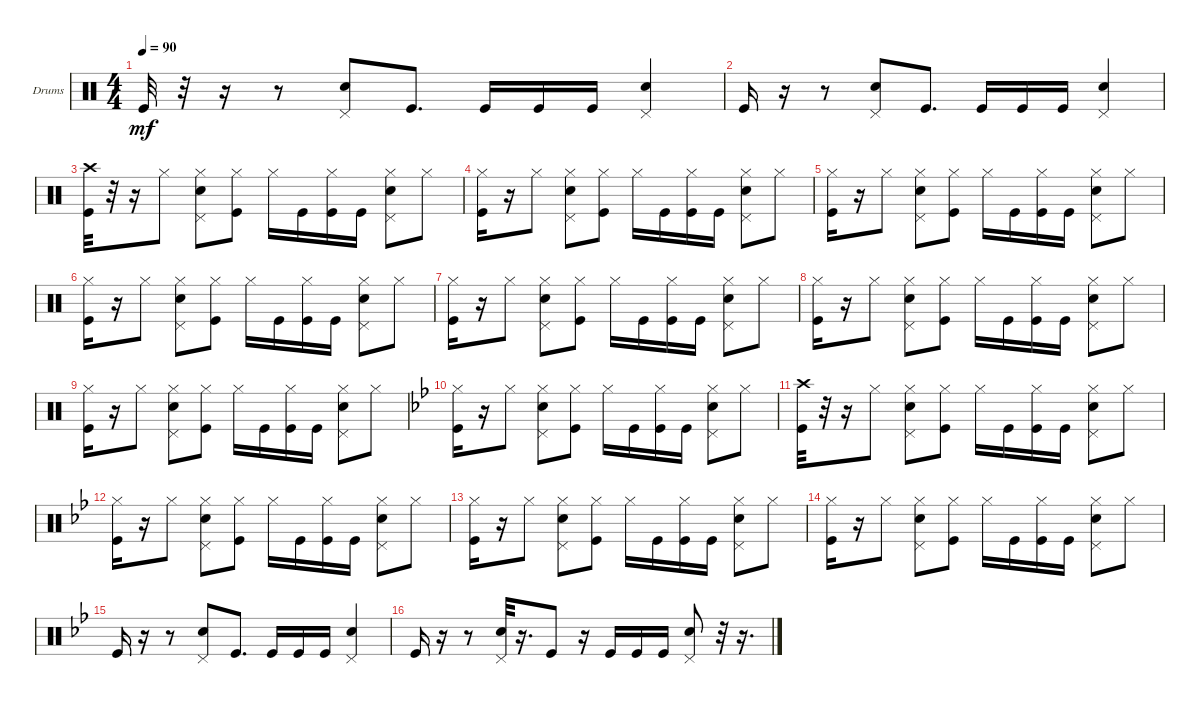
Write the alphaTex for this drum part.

\bracketExtendMode groupsimilarinstruments
\firstSystemTrackNameOrientation horizontal
\otherSystemsTrackNameOrientation horizontal
\track ("Drumkit" "Drums") {instrument percussion}
\staff {score}
\articulation defaults
\ts (4 4)
\tempo 90
\clef neutral
\ks c "Kick (hit)".32{dy mf}
r.32 r.16 r.8 ("Pedal Hi-Hat (hit)" "Snare (hit) 2").8 "Kick (hit)".8{d} "Kick (hit)".16 "Kick (hit)".16 "Kick (hit)".16 ("Pedal Hi-Hat (hit)" "Snare (hit) 2").4 |
"Kick (hit)".16 r.16 r.8 ("Pedal Hi-Hat (hit)" "Snare (hit) 2").8 "Kick (hit)".8{d} "Kick (hit)".16 "Kick (hit)".16 "Kick (hit)".16 ("Pedal Hi-Hat (hit)" "Snare (hit) 2").4 |
("Kick (hit)" "Crash high (hit)").32 r.32 r.16 "Hi-Hat (closed)".8 ("Hi-Hat (closed)" "Pedal Hi-Hat (hit)" "Snare (hit) 2").8 ("Hi-Hat (closed)" "Kick (hit)").8 "Hi-Hat (closed)".16 "Kick (hit)".16 ("Kick (hit)" "Hi-Hat (closed)").16 "Kick (hit)".16 ("Pedal Hi-Hat (hit)" "Hi-Hat (closed)" "Snare (hit) 2").8 "Hi-Hat (closed)".8 |
("Hi-Hat (closed)" "Kick (hit)").16 r.16 "Hi-Hat (closed)".8 ("Hi-Hat (closed)" "Pedal Hi-Hat (hit)" "Snare (hit) 2").8 ("Kick (hit)" "Hi-Hat (closed)").8 "Hi-Hat (closed)".16 "Kick (hit)".16 ("Hi-Hat (closed)" "Kick (hit)").16 "Kick (hit)".16 ("Hi-Hat (closed)" "Snare (hit) 2" "Pedal Hi-Hat (hit)").8 "Hi-Hat (closed)".8 |
("Kick (hit)" "Hi-Hat (closed)").16 r.16 "Hi-Hat (closed)".8 ("Pedal Hi-Hat (hit)" "Snare (hit) 2" "Hi-Hat (closed)").8 ("Hi-Hat (closed)" "Kick (hit)").8 "Hi-Hat (closed)".16 "Kick (hit)".16 ("Hi-Hat (closed)" "Kick (hit)").16 "Kick (hit)".16 ("Snare (hit) 2" "Pedal Hi-Hat (hit)" "Hi-Hat (closed)").8 "Hi-Hat (closed)".8 |
("Hi-Hat (closed)" "Kick (hit)").16 r.16 "Hi-Hat (closed)".8 ("Hi-Hat (closed)" "Pedal Hi-Hat (hit)" "Snare (hit) 2").8 ("Hi-Hat (closed)" "Kick (hit)").8 "Hi-Hat (closed)".16 "Kick (hit)".16 ("Hi-Hat (closed)" "Kick (hit)").16 "Kick (hit)".16 ("Hi-Hat (closed)" "Pedal Hi-Hat (hit)" "Snare (hit) 2").8 "Hi-Hat (closed)".8 |
("Hi-Hat (closed)" "Kick (hit)").16 r.16 "Hi-Hat (closed)".8 ("Hi-Hat (closed)" "Pedal Hi-Hat (hit)" "Snare (hit) 2").8 ("Kick (hit)" "Hi-Hat (closed)").8 "Hi-Hat (closed)".16 "Kick (hit)".16 ("Hi-Hat (closed)" "Kick (hit)").16 "Kick (hit)".16 ("Hi-Hat (closed)" "Snare (hit) 2" "Pedal Hi-Hat (hit)").8 "Hi-Hat (closed)".8 |
("Hi-Hat (closed)" "Kick (hit)").16 r.16 "Hi-Hat (closed)".8 ("Hi-Hat (closed)" "Pedal Hi-Hat (hit)" "Snare (hit) 2").8 ("Hi-Hat (closed)" "Kick (hit)").8 "Hi-Hat (closed)".16 "Kick (hit)".16 ("Hi-Hat (closed)" "Kick (hit)").16 "Kick (hit)".16 ("Snare (hit) 2" "Pedal Hi-Hat (hit)" "Hi-Hat (closed)").8 "Hi-Hat (closed)".8 |
("Kick (hit)" "Hi-Hat (closed)").16 r.16 "Hi-Hat (closed)".8 ("Pedal Hi-Hat (hit)" "Hi-Hat (closed)" "Snare (hit) 2").8 ("Hi-Hat (closed)" "Kick (hit)").8 "Hi-Hat (closed)".16 "Kick (hit)".16 ("Hi-Hat (closed)" "Kick (hit)").16 "Kick (hit)".16 ("Pedal Hi-Hat (hit)" "Hi-Hat (closed)" "Snare (hit) 2").8 "Hi-Hat (closed)".8 |
\ks bb
("Hi-Hat (closed)" "Kick (hit)").16 r.16 "Hi-Hat (closed)".8 ("Pedal Hi-Hat (hit)" "Hi-Hat (closed)" "Snare (hit) 2").8 ("Kick (hit)" "Hi-Hat (closed)").8 "Hi-Hat (closed)".16 "Kick (hit)".16 ("Hi-Hat (closed)" "Kick (hit)").16 "Kick (hit)".16 ("Hi-Hat (closed)" "Snare (hit) 2" "Pedal Hi-Hat (hit)").8 "Hi-Hat (closed)".8 |
("Crash high (hit)" "Kick (hit)").32 r.32 r.16 "Hi-Hat (closed)".8 ("Hi-Hat (closed)" "Pedal Hi-Hat (hit)" "Snare (hit) 2").8 ("Hi-Hat (closed)" "Kick (hit)").8 "Hi-Hat (closed)".16 "Kick (hit)".16 ("Hi-Hat (closed)" "Kick (hit)").16 "Kick (hit)".16 ("Pedal Hi-Hat (hit)" "Hi-Hat (closed)" "Snare (hit) 2").8 "Hi-Hat (closed)".8 |
("Hi-Hat (closed)" "Kick (hit)").16 r.16 "Hi-Hat (closed)".8 ("Hi-Hat (closed)" "Pedal Hi-Hat (hit)" "Snare (hit) 2").8 ("Hi-Hat (closed)" "Kick (hit)").8 "Hi-Hat (closed)".16 "Kick (hit)".16 ("Kick (hit)" "Hi-Hat (closed)").16 "Kick (hit)".16 ("Pedal Hi-Hat (hit)" "Hi-Hat (closed)" "Snare (hit) 2").8 "Hi-Hat (closed)".8 |
("Hi-Hat (closed)" "Kick (hit)").16 r.16 "Hi-Hat (closed)".8 ("Hi-Hat (closed)" "Pedal Hi-Hat (hit)" "Snare (hit) 2").8 ("Kick (hit)" "Hi-Hat (closed)").8 "Hi-Hat (closed)".16 "Kick (hit)".16 ("Kick (hit)" "Hi-Hat (closed)").16 "Kick (hit)".16 ("Snare (hit) 2" "Pedal Hi-Hat (hit)" "Hi-Hat (closed)").8 "Hi-Hat (closed)".8 |
("Kick (hit)" "Hi-Hat (closed)").16 r.16 "Hi-Hat (closed)".8 ("Snare (hit) 2" "Hi-Hat (closed)" "Pedal Hi-Hat (hit)").8 ("Hi-Hat (closed)" "Kick (hit)").8 "Hi-Hat (closed)".16 "Kick (hit)".16 ("Kick (hit)" "Hi-Hat (closed)").16 "Kick (hit)".16 ("Snare (hit) 2" "Hi-Hat (closed)" "Pedal Hi-Hat (hit)").8 "Hi-Hat (closed)".8 |
"Kick (hit)".16 r.16 r.8 ("Pedal Hi-Hat (hit)" "Snare (hit) 2").8 "Kick (hit)".8{d} "Kick (hit)".16 "Kick (hit)".16 "Kick (hit)".16 ("Snare (hit) 2" "Pedal Hi-Hat (hit)").4 |
"Kick (hit)".16 r.16 r.8 ("Pedal Hi-Hat (hit)" "Snare (hit) 2").32 r.16{d} "Kick (hit)".8 r.16 "Kick (hit)".16 "Kick (hit)".16 "Kick (hit)".16 ("Snare (hit) 2" "Pedal Hi-Hat (hit)").8 r.32 r.16{d}
